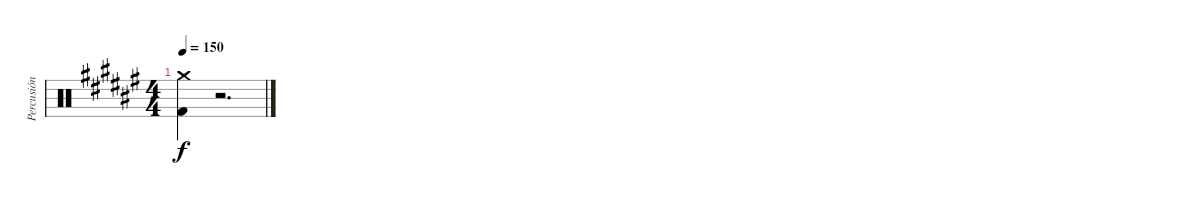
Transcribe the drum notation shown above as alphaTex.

\track ("Percusión" "Percusión") {instrument percussion}
\staff {score}
\articulation defaults
\ts (4 4)
\tempo 150
\clef neutral
\ks d#minor
("Crash medium (hit)" "Kick (hit) 2").4{dy f} r.2{d}
